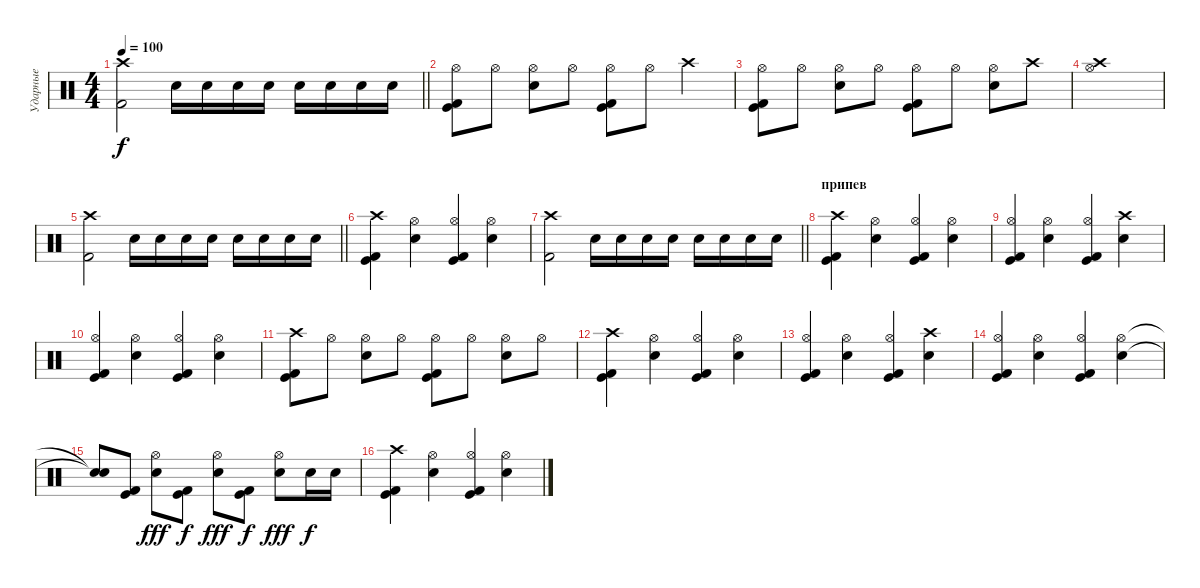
\track ("Ударные" "Ударные") {instrument percussion}
\staff {score}
\articulation defaults
\ts (4 4)
\tempo 100
\clef neutral
\barLineRight lightlight
\ks c
("Crash high (hit)" "Kick (hit) 2").2{dy f} "Snare (hit) 2".16 "Snare (hit) 2".16 "Snare (hit) 2".16 "Snare (hit) 2".16 "Snare (hit) 2".16 "Snare (hit) 2".16 "Snare (hit) 2".16 "Snare (hit) 2".16 |
("Hi-Hat (open)" "Kick (hit) 2" "Kick (hit)").8 "Hi-Hat (open)".8 ("Hi-Hat (open)" "Electric Snare (hit)").8 "Hi-Hat (open)".8 ("Hi-Hat (open)" "Kick (hit) 2" "Kick (hit)").8 "Hi-Hat (open)".8 "Crash high (hit)".4 |
("Hi-Hat (open)" "Kick (hit) 2" "Kick (hit)").8 "Hi-Hat (open)".8 ("Hi-Hat (open)" "Electric Snare (hit)").8 "Hi-Hat (open)".8 ("Hi-Hat (open)" "Kick (hit) 2" "Kick (hit)").8 "Hi-Hat (open)".8 ("Hi-Hat (open)" "Electric Snare (hit)").8 "Crash high (hit)".8 |
("Hi-Hat (open)" "Crash high (hit)").1 |
\barLineRight lightlight
("Crash high (hit)" "Kick (hit) 2").2 "Snare (hit) 2".16 "Snare (hit) 2".16 "Snare (hit) 2".16 "Snare (hit) 2".16 "Snare (hit) 2".16 "Snare (hit) 2".16 "Snare (hit) 2".16 "Snare (hit) 2".16 |
("Crash high (hit)" "Kick (hit) 2" "Kick (hit)").4 ("Hi-Hat (open)" "Electric Snare (hit)").4 ("Hi-Hat (open)" "Kick (hit) 2" "Kick (hit)").4 ("Hi-Hat (open)" "Electric Snare (hit)").4 |
\barLineRight lightlight
("Crash high (hit)" "Kick (hit) 2").2 "Snare (hit) 2".16 "Snare (hit) 2".16 "Snare (hit) 2".16 "Snare (hit) 2".16 "Snare (hit) 2".16 "Snare (hit) 2".16 "Snare (hit) 2".16 "Snare (hit) 2".16 |
\section ("" "припев")
("Crash high (hit)" "Kick (hit) 2" "Kick (hit)").4 ("Hi-Hat (open)" "Electric Snare (hit)").4 ("Hi-Hat (open)" "Kick (hit) 2" "Kick (hit)").4 ("Hi-Hat (open)" "Electric Snare (hit)").4 |
("Hi-Hat (open)" "Kick (hit) 2" "Kick (hit)").4 ("Hi-Hat (open)" "Electric Snare (hit)").4 ("Hi-Hat (open)" "Kick (hit) 2" "Kick (hit)").4 ("Crash high (hit)" "Electric Snare (hit)").4 |
("Hi-Hat (open)" "Kick (hit) 2" "Kick (hit)").4 ("Hi-Hat (open)" "Electric Snare (hit)").4 ("Hi-Hat (open)" "Kick (hit) 2" "Kick (hit)").4 ("Hi-Hat (open)" "Electric Snare (hit)").4 |
("Crash high (hit)" "Kick (hit) 2" "Kick (hit)").8 "Hi-Hat (open)".8 ("Hi-Hat (open)" "Electric Snare (hit)").8 "Hi-Hat (open)".8 ("Hi-Hat (open)" "Kick (hit) 2" "Kick (hit)").8 "Hi-Hat (open)".8 ("Hi-Hat (open)" "Electric Snare (hit)").8 "Hi-Hat (open)".8 |
("Crash high (hit)" "Kick (hit) 2" "Kick (hit)").4 ("Hi-Hat (open)" "Electric Snare (hit)").4 ("Hi-Hat (open)" "Kick (hit) 2" "Kick (hit)").4 ("Hi-Hat (open)" "Electric Snare (hit)").4 |
("Hi-Hat (open)" "Kick (hit) 2" "Kick (hit)").4 ("Hi-Hat (open)" "Electric Snare (hit)").4 ("Hi-Hat (open)" "Kick (hit) 2" "Kick (hit)").4 ("Crash high (hit)" "Electric Snare (hit)").4 |
("Hi-Hat (open)" "Kick (hit) 2" "Kick (hit)").4 ("Hi-Hat (open)" "Electric Snare (hit)").4 ("Hi-Hat (open)" "Kick (hit) 2" "Kick (hit)").4 ("Hi-Hat (open)" "Electric Snare (hit)").4 |
("Snare (hit)"{t} "Snare (hit)"{t}).8 ("Kick (hit) 2" "Kick (hit)").8 ("Hi-Hat (open)" "Electric Snare (hit)").8{dy fff} ("Kick (hit) 2" "Kick (hit)").8{dy f} ("Hi-Hat (open)" "Electric Snare (hit)").8{dy fff} ("Kick (hit) 2" "Kick (hit)").8{dy f} ("Hi-Hat (open)" "Electric Snare (hit)").8{dy fff} "Electric Snare (hit)".16{dy f} "Electric Snare (hit)".16 |
("Crash high (hit)" "Kick (hit) 2" "Kick (hit)").4 ("Hi-Hat (open)" "Electric Snare (hit)").4 ("Hi-Hat (open)" "Kick (hit) 2" "Kick (hit)").4 ("Hi-Hat (open)" "Electric Snare (hit)").4
